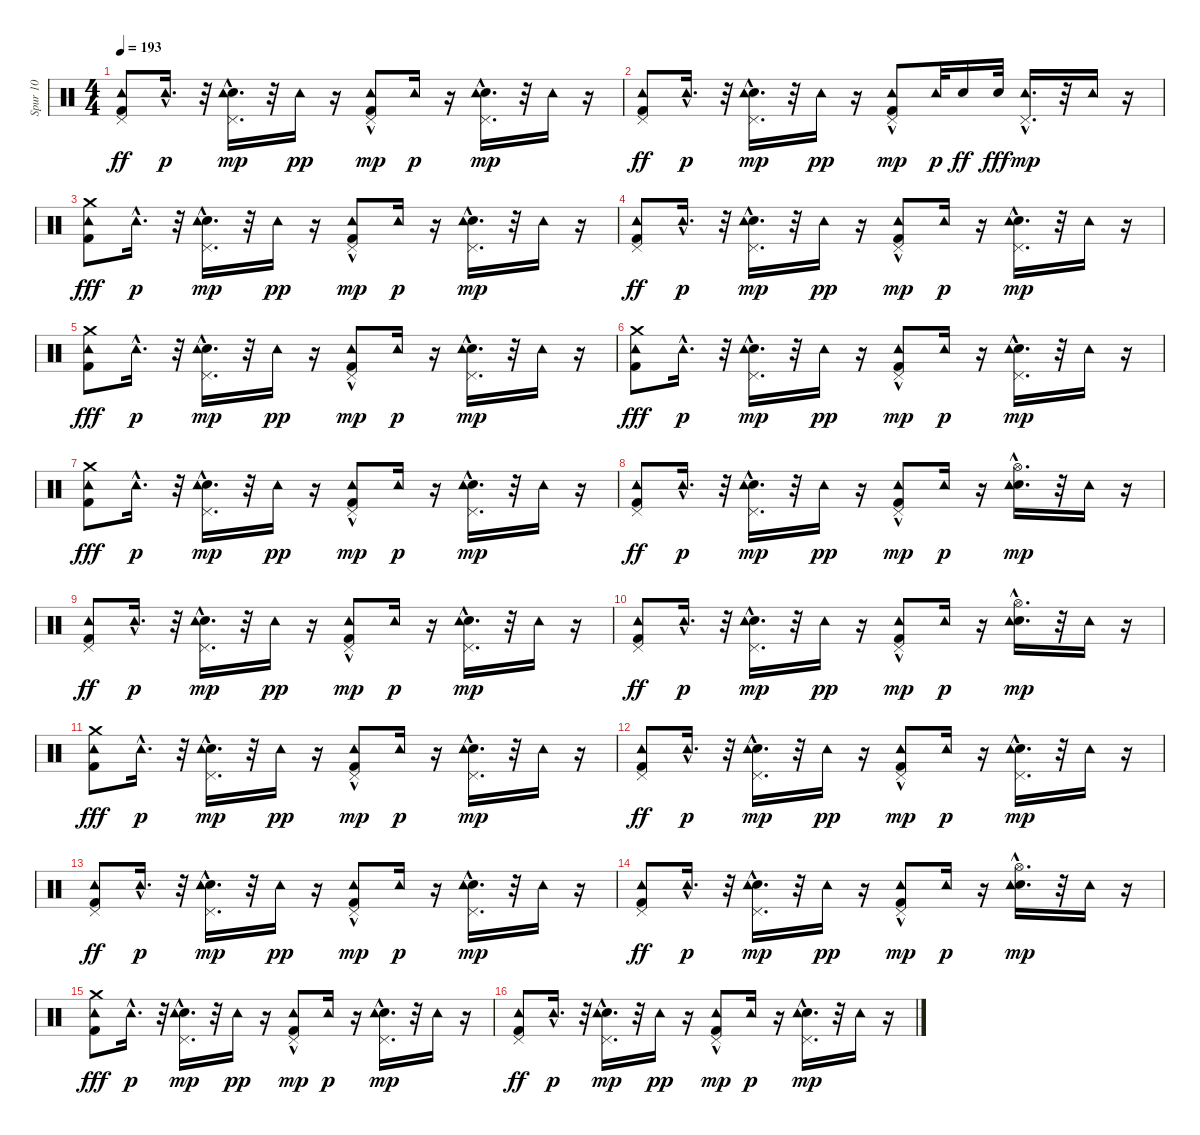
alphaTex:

\track ("Spur 10" "Spur 10") {instrument percussion}
\staff {score}
\articulation defaults
\ts (4 4)
\tempo 193
\clef neutral
\ks c
("Tambourine (hit)" "Kick (hit) 2" "Pedal Hi-Hat (hit)").8{dy ff} "Tambourine (hit)"{hac}.16{d dy p} r.32 ("Pedal Hi-Hat (hit)" "Snare (hit) 2"{hac} "Tambourine (hit)").16{d dy mp} r.32 "Tambourine (hit)".16{dy pp} r.16 ("Kick (hit) 2" "Pedal Hi-Hat (hit)" "Tambourine (hit)"{hac}).8{dy mp} "Tambourine (hit)".16{dy p} r.16 ("Snare (hit) 2"{hac} "Pedal Hi-Hat (hit)"{hac} "Tambourine (hit)").16{d dy mp} r.32 "Tambourine (hit)".16 r.16 |
("Tambourine (hit)" "Kick (hit) 2" "Pedal Hi-Hat (hit)").8{dy ff} "Tambourine (hit)"{hac}.16{d dy p} r.32 ("Pedal Hi-Hat (hit)" "Snare (hit) 2"{hac} "Tambourine (hit)").16{d dy mp} r.32 "Tambourine (hit)".16{dy pp} r.16 ("Kick (hit) 2" "Pedal Hi-Hat (hit)" "Tambourine (hit)"{hac}).8{dy mp} "Tambourine (hit)".32{dy p} "Snare (hit) 2".16{dy ff} "Snare (hit) 2".32{dy fff} ("Pedal Hi-Hat (hit)"{hac} "Tambourine (hit)").16{d dy mp} r.32 "Tambourine (hit)".16 r.16 |
("Tambourine (hit)" "Kick (hit) 2" "Crash medium (hit)").8{dy fff} "Tambourine (hit)"{hac}.16{d dy p} r.32 ("Pedal Hi-Hat (hit)" "Snare (hit) 2"{hac} "Tambourine (hit)").16{d dy mp} r.32 "Tambourine (hit)".16{dy pp} r.16 ("Kick (hit) 2" "Pedal Hi-Hat (hit)" "Tambourine (hit)"{hac}).8{dy mp} "Tambourine (hit)".16{dy p} r.16 ("Snare (hit) 2"{hac} "Pedal Hi-Hat (hit)"{hac} "Tambourine (hit)").16{d dy mp} r.32 "Tambourine (hit)".16 r.16 |
("Tambourine (hit)" "Kick (hit) 2" "Pedal Hi-Hat (hit)").8{dy ff} "Tambourine (hit)"{hac}.16{d dy p} r.32 ("Pedal Hi-Hat (hit)" "Snare (hit) 2"{hac} "Tambourine (hit)").16{d dy mp} r.32 "Tambourine (hit)".16{dy pp} r.16 ("Kick (hit) 2" "Pedal Hi-Hat (hit)" "Tambourine (hit)"{hac}).8{dy mp} "Tambourine (hit)".16{dy p} r.16 ("Snare (hit) 2"{hac} "Pedal Hi-Hat (hit)"{hac} "Tambourine (hit)").16{d dy mp} r.32 "Tambourine (hit)".16 r.16 |
("Tambourine (hit)" "Kick (hit) 2" "Crash medium (hit)").8{dy fff} "Tambourine (hit)"{hac}.16{d dy p} r.32 ("Pedal Hi-Hat (hit)" "Snare (hit) 2"{hac} "Tambourine (hit)").16{d dy mp} r.32 "Tambourine (hit)".16{dy pp} r.16 ("Kick (hit) 2" "Pedal Hi-Hat (hit)" "Tambourine (hit)"{hac}).8{dy mp} "Tambourine (hit)".16{dy p} r.16 ("Snare (hit) 2"{hac} "Pedal Hi-Hat (hit)"{hac} "Tambourine (hit)").16{d dy mp} r.32 "Tambourine (hit)".16 r.16 |
("Tambourine (hit)" "Kick (hit) 2" "Crash medium (hit)").8{dy fff} "Tambourine (hit)"{hac}.16{d dy p} r.32 ("Pedal Hi-Hat (hit)" "Snare (hit) 2"{hac} "Tambourine (hit)").16{d dy mp} r.32 "Tambourine (hit)".16{dy pp} r.16 ("Kick (hit) 2" "Pedal Hi-Hat (hit)" "Tambourine (hit)"{hac}).8{dy mp} "Tambourine (hit)".16{dy p} r.16 ("Snare (hit) 2"{hac} "Pedal Hi-Hat (hit)"{hac} "Tambourine (hit)").16{d dy mp} r.32 "Tambourine (hit)".16 r.16 |
("Tambourine (hit)" "Kick (hit) 2" "Crash medium (hit)").8{dy fff} "Tambourine (hit)"{hac}.16{d dy p} r.32 ("Pedal Hi-Hat (hit)" "Snare (hit) 2"{hac} "Tambourine (hit)").16{d dy mp} r.32 "Tambourine (hit)".16{dy pp} r.16 ("Kick (hit) 2" "Pedal Hi-Hat (hit)" "Tambourine (hit)"{hac}).8{dy mp} "Tambourine (hit)".16{dy p} r.16 ("Snare (hit) 2"{hac} "Pedal Hi-Hat (hit)"{hac} "Tambourine (hit)").16{d dy mp} r.32 "Tambourine (hit)".16 r.16 |
("Tambourine (hit)" "Kick (hit) 2" "Pedal Hi-Hat (hit)").8{dy ff} "Tambourine (hit)"{hac}.16{d dy p} r.32 ("Pedal Hi-Hat (hit)" "Snare (hit) 2"{hac} "Tambourine (hit)").16{d dy mp} r.32 "Tambourine (hit)".16{dy pp} r.16 ("Kick (hit) 2" "Pedal Hi-Hat (hit)" "Tambourine (hit)"{hac}).8{dy mp} "Tambourine (hit)".16{dy p} r.16 ("Snare (hit) 2"{hac} "Hi-Hat (open)"{hac} "Tambourine (hit)").16{d dy mp} r.32 "Tambourine (hit)".16 r.16 |
("Tambourine (hit)" "Kick (hit) 2" "Pedal Hi-Hat (hit)").8{dy ff} "Tambourine (hit)"{hac}.16{d dy p} r.32 ("Pedal Hi-Hat (hit)" "Snare (hit) 2"{hac} "Tambourine (hit)").16{d dy mp} r.32 "Tambourine (hit)".16{dy pp} r.16 ("Kick (hit) 2" "Pedal Hi-Hat (hit)" "Tambourine (hit)"{hac}).8{dy mp} "Tambourine (hit)".16{dy p} r.16 ("Snare (hit) 2"{hac} "Pedal Hi-Hat (hit)"{hac} "Tambourine (hit)").16{d dy mp} r.32 "Tambourine (hit)".16 r.16 |
("Tambourine (hit)" "Kick (hit) 2" "Pedal Hi-Hat (hit)").8{dy ff} "Tambourine (hit)"{hac}.16{d dy p} r.32 ("Pedal Hi-Hat (hit)" "Snare (hit) 2"{hac} "Tambourine (hit)").16{d dy mp} r.32 "Tambourine (hit)".16{dy pp} r.16 ("Kick (hit) 2" "Pedal Hi-Hat (hit)" "Tambourine (hit)"{hac}).8{dy mp} "Tambourine (hit)".16{dy p} r.16 ("Snare (hit) 2"{hac} "Hi-Hat (open)"{hac} "Tambourine (hit)").16{d dy mp} r.32 "Tambourine (hit)".16 r.16 |
("Tambourine (hit)" "Kick (hit) 2" "Crash medium (hit)").8{dy fff} "Tambourine (hit)"{hac}.16{d dy p} r.32 ("Pedal Hi-Hat (hit)" "Snare (hit) 2"{hac} "Tambourine (hit)").16{d dy mp} r.32 "Tambourine (hit)".16{dy pp} r.16 ("Kick (hit) 2" "Pedal Hi-Hat (hit)" "Tambourine (hit)"{hac}).8{dy mp} "Tambourine (hit)".16{dy p} r.16 ("Snare (hit) 2"{hac} "Pedal Hi-Hat (hit)"{hac} "Tambourine (hit)").16{d dy mp} r.32 "Tambourine (hit)".16 r.16 |
("Tambourine (hit)" "Kick (hit) 2" "Pedal Hi-Hat (hit)").8{dy ff} "Tambourine (hit)"{hac}.16{d dy p} r.32 ("Pedal Hi-Hat (hit)" "Snare (hit) 2"{hac} "Tambourine (hit)").16{d dy mp} r.32 "Tambourine (hit)".16{dy pp} r.16 ("Kick (hit) 2" "Pedal Hi-Hat (hit)" "Tambourine (hit)"{hac}).8{dy mp} "Tambourine (hit)".16{dy p} r.16 ("Snare (hit) 2"{hac} "Pedal Hi-Hat (hit)"{hac} "Tambourine (hit)").16{d dy mp} r.32 "Tambourine (hit)".16 r.16 |
("Tambourine (hit)" "Kick (hit) 2" "Pedal Hi-Hat (hit)").8{dy ff} "Tambourine (hit)"{hac}.16{d dy p} r.32 ("Pedal Hi-Hat (hit)" "Snare (hit) 2"{hac} "Tambourine (hit)").16{d dy mp} r.32 "Tambourine (hit)".16{dy pp} r.16 ("Kick (hit) 2" "Pedal Hi-Hat (hit)" "Tambourine (hit)"{hac}).8{dy mp} "Tambourine (hit)".16{dy p} r.16 ("Snare (hit) 2"{hac} "Pedal Hi-Hat (hit)"{hac} "Tambourine (hit)").16{d dy mp} r.32 "Tambourine (hit)".16 r.16 |
("Tambourine (hit)" "Kick (hit) 2" "Pedal Hi-Hat (hit)").8{dy ff} "Tambourine (hit)"{hac}.16{d dy p} r.32 ("Pedal Hi-Hat (hit)" "Snare (hit) 2"{hac} "Tambourine (hit)").16{d dy mp} r.32 "Tambourine (hit)".16{dy pp} r.16 ("Kick (hit) 2" "Pedal Hi-Hat (hit)" "Tambourine (hit)"{hac}).8{dy mp} "Tambourine (hit)".16{dy p} r.16 ("Snare (hit) 2"{hac} "Hi-Hat (open)"{hac} "Tambourine (hit)").16{d dy mp} r.32 "Tambourine (hit)".16 r.16 |
("Tambourine (hit)" "Kick (hit) 2" "Crash medium (hit)").8{dy fff} "Tambourine (hit)"{hac}.16{d dy p} r.32 ("Pedal Hi-Hat (hit)" "Snare (hit) 2"{hac} "Tambourine (hit)").16{d dy mp} r.32 "Tambourine (hit)".16{dy pp} r.16 ("Kick (hit) 2" "Pedal Hi-Hat (hit)" "Tambourine (hit)"{hac}).8{dy mp} "Tambourine (hit)".16{dy p} r.16 ("Snare (hit) 2"{hac} "Pedal Hi-Hat (hit)"{hac} "Tambourine (hit)").16{d dy mp} r.32 "Tambourine (hit)".16 r.16 |
("Tambourine (hit)" "Kick (hit) 2" "Pedal Hi-Hat (hit)").8{dy ff} "Tambourine (hit)"{hac}.16{d dy p} r.32 ("Pedal Hi-Hat (hit)" "Snare (hit) 2"{hac} "Tambourine (hit)").16{d dy mp} r.32 "Tambourine (hit)".16{dy pp} r.16 ("Kick (hit) 2" "Pedal Hi-Hat (hit)" "Tambourine (hit)"{hac}).8{dy mp} "Tambourine (hit)".16{dy p} r.16 ("Snare (hit) 2"{hac} "Pedal Hi-Hat (hit)"{hac} "Tambourine (hit)").16{d dy mp} r.32 "Tambourine (hit)".16 r.16
